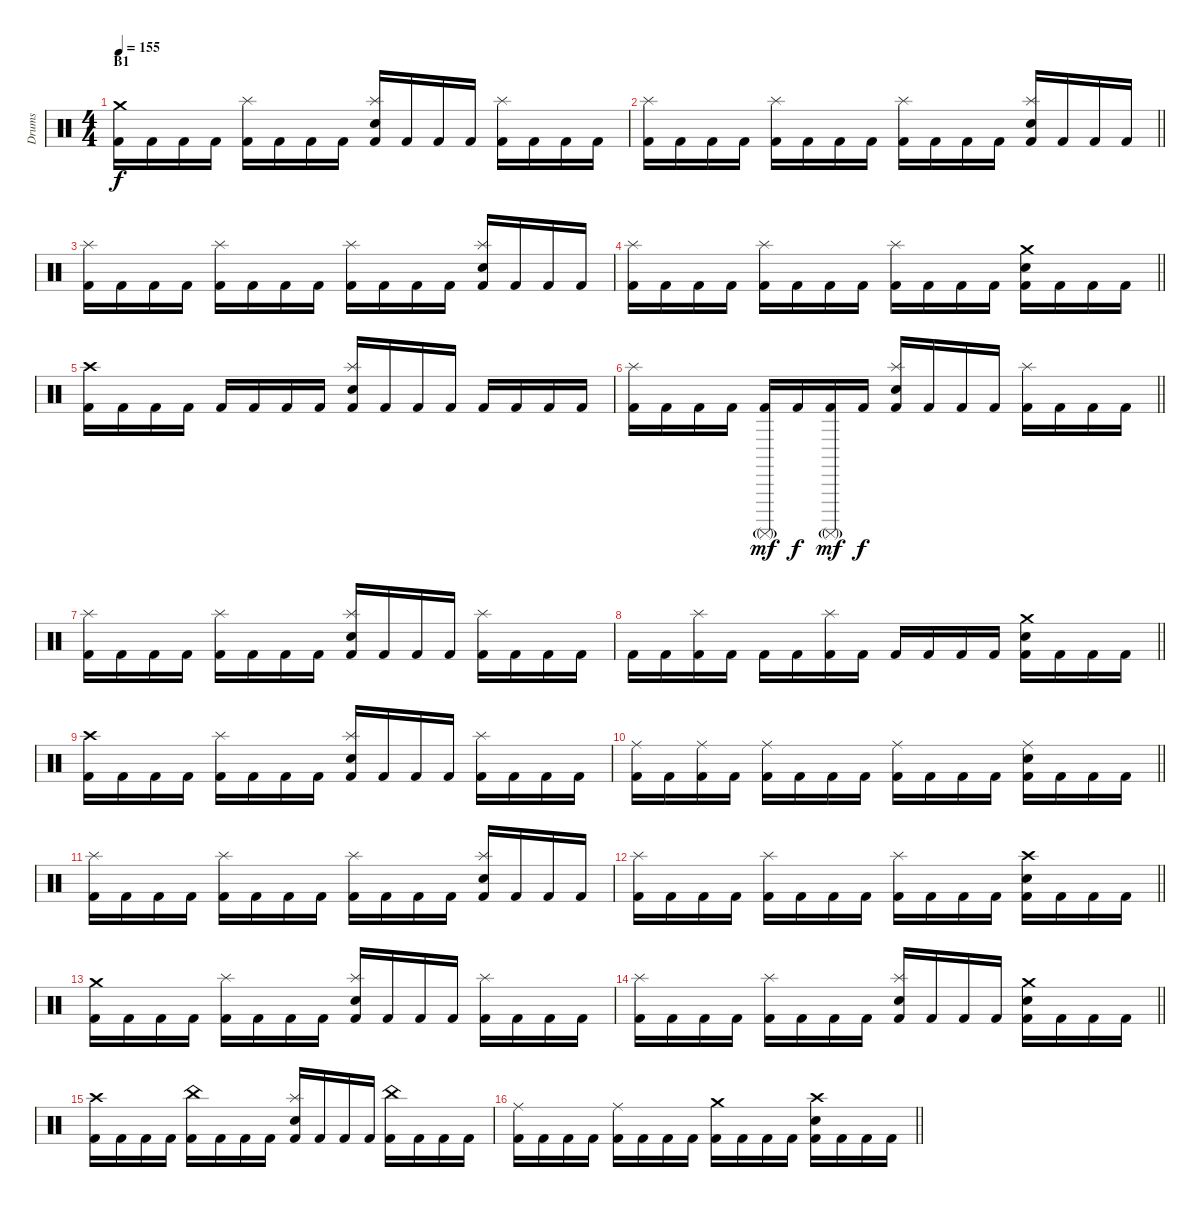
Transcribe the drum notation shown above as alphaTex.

\track ("Drums" "Drums") {instrument percussion}
\staff {score}
\articulation defaults
\ts (4 4)
\section ("" "B1")
\tempo 155
\clef neutral
\ks c
("Crash medium (hit)" "Kick (hit) 2").16{dy f} "Kick (hit) 2".16 "Kick (hit) 2".16 "Kick (hit) 2".16 ("Splash (hit)" "Kick (hit) 2").16 "Kick (hit) 2".16 "Kick (hit) 2".16 "Kick (hit) 2".16 ("Splash (hit)" "Electric Snare (hit)" "Kick (hit) 2").16 "Kick (hit) 2".16 "Kick (hit) 2".16 "Kick (hit) 2".16 ("Splash (hit)" "Kick (hit) 2").16 "Kick (hit) 2".16 "Kick (hit) 2".16 "Kick (hit) 2".16 |
\barLineRight lightlight
("Splash (hit)" "Kick (hit) 2").16 "Kick (hit) 2".16 "Kick (hit) 2".16 "Kick (hit) 2".16 ("Splash (hit)" "Kick (hit) 2").16 "Kick (hit) 2".16 "Kick (hit) 2".16 "Kick (hit) 2".16 ("Splash (hit)" "Kick (hit) 2").16 "Kick (hit) 2".16 "Kick (hit) 2".16 "Kick (hit) 2".16 ("Splash (hit)" "Electric Snare (hit)" "Kick (hit) 2").16 "Kick (hit) 2".16 "Kick (hit) 2".16 "Kick (hit) 2".16 |
("Splash (hit)" "Kick (hit) 2").16 "Kick (hit) 2".16 "Kick (hit) 2".16 "Kick (hit) 2".16 ("Splash (hit)" "Kick (hit) 2").16 "Kick (hit) 2".16 "Kick (hit) 2".16 "Kick (hit) 2".16 ("Splash (hit)" "Kick (hit) 2").16 "Kick (hit) 2".16 "Kick (hit) 2".16 "Kick (hit) 2".16 ("Splash (hit)" "Electric Snare (hit)" "Kick (hit) 2").16 "Kick (hit) 2".16 "Kick (hit) 2".16 "Kick (hit) 2".16 |
\barLineRight lightlight
("Splash (hit)" "Kick (hit) 2").16 "Kick (hit) 2".16 "Kick (hit) 2".16 "Kick (hit) 2".16 ("Splash (hit)" "Kick (hit) 2").16 "Kick (hit) 2".16 "Kick (hit) 2".16 "Kick (hit) 2".16 ("Splash (hit)" "Kick (hit) 2").16 "Kick (hit) 2".16 "Kick (hit) 2".16 "Kick (hit) 2".16 ("Crash medium (hit)" "Electric Snare (hit)" "Kick (hit) 2").16 "Kick (hit) 2".16 "Kick (hit) 2".16 "Kick (hit) 2".16 |
\section ("" "")
("Crash high (hit)" "Kick (hit) 2").16 "Kick (hit) 2".16 "Kick (hit) 2".16 "Kick (hit) 2".16 "Kick (hit) 2".16 "Kick (hit) 2".16 "Kick (hit) 2".16 "Kick (hit) 2".16 ("Splash (hit)" "Electric Snare (hit)" "Kick (hit) 2").16 "Kick (hit) 2".16 "Kick (hit) 2".16 "Kick (hit) 2".16 "Kick (hit) 2".16 "Kick (hit) 2".16 "Kick (hit) 2".16 "Kick (hit) 2".16 |
\barLineRight lightlight
("Splash (hit)" "Kick (hit) 2").16 "Kick (hit) 2".16 "Kick (hit) 2".16 "Kick (hit) 2".16 ("Surdo (mute)"{g} "Kick (hit) 2").16{dy mf} "Kick (hit) 2".16{dy f} ("Surdo (mute)"{g} "Kick (hit) 2").16{dy mf} "Kick (hit) 2".16{dy f} ("Splash (hit)" "Electric Snare (hit)" "Kick (hit) 2").16 "Kick (hit) 2".16 "Kick (hit) 2".16 "Kick (hit) 2".16 ("Splash (hit)" "Kick (hit) 2").16 "Kick (hit) 2".16 "Kick (hit) 2".16 "Kick (hit) 2".16 |
("Splash (hit)" "Kick (hit) 2").16 "Kick (hit) 2".16 "Kick (hit) 2".16 "Kick (hit) 2".16 ("Splash (hit)" "Kick (hit) 2").16 "Kick (hit) 2".16 "Kick (hit) 2".16 "Kick (hit) 2".16 ("Splash (hit)" "Electric Snare (hit)" "Kick (hit) 2").16 "Kick (hit) 2".16 "Kick (hit) 2".16 "Kick (hit) 2".16 ("Splash (hit)" "Kick (hit) 2").16 "Kick (hit) 2".16 "Kick (hit) 2".16 "Kick (hit) 2".16 |
\barLineRight lightlight "Kick (hit) 2".16 "Kick (hit) 2".16
("Splash (hit)" "Kick (hit) 2").16 "Kick (hit) 2".16 "Kick (hit) 2".16 "Kick (hit) 2".16 ("Splash (hit)" "Kick (hit) 2").16 "Kick (hit) 2".16 "Kick (hit) 2".16 "Kick (hit) 2".16 "Kick (hit) 2".16 "Kick (hit) 2".16 ("Crash medium (hit)" "Electric Snare (hit)" "Kick (hit) 2").16 "Kick (hit) 2".16 "Kick (hit) 2".16 "Kick (hit) 2".16 |
\section ("" "")
("Crash high (hit)" "Kick (hit) 2").16 "Kick (hit) 2".16 "Kick (hit) 2".16 "Kick (hit) 2".16 ("Splash (hit)" "Kick (hit) 2").16 "Kick (hit) 2".16 "Kick (hit) 2".16 "Kick (hit) 2".16 ("Splash (hit)" "Electric Snare (hit)" "Kick (hit) 2").16 "Kick (hit) 2".16 "Kick (hit) 2".16 "Kick (hit) 2".16 ("Splash (hit)" "Kick (hit) 2").16 "Kick (hit) 2".16 "Kick (hit) 2".16 "Kick (hit) 2".16 |
\barLineRight lightlight
("Ride (middle)" "Kick (hit) 2").16 "Kick (hit) 2".16 ("Ride (middle)" "Kick (hit) 2").16 "Kick (hit) 2".16 ("Ride (middle)" "Kick (hit) 2").16 "Kick (hit) 2".16 "Kick (hit) 2".16 "Kick (hit) 2".16 ("Ride (middle)" "Kick (hit) 2").16 "Kick (hit) 2".16 "Kick (hit) 2".16 "Kick (hit) 2".16 ("Ride (middle)" "Electric Snare (hit)" "Kick (hit) 2").16 "Kick (hit) 2".16 "Kick (hit) 2".16 "Kick (hit) 2".16 |
("Splash (hit)" "Kick (hit) 2").16 "Kick (hit) 2".16 "Kick (hit) 2".16 "Kick (hit) 2".16 ("Splash (hit)" "Kick (hit) 2").16 "Kick (hit) 2".16 "Kick (hit) 2".16 "Kick (hit) 2".16 ("Splash (hit)" "Kick (hit) 2").16 "Kick (hit) 2".16 "Kick (hit) 2".16 "Kick (hit) 2".16 ("Splash (hit)" "Electric Snare (hit)" "Kick (hit) 2").16 "Kick (hit) 2".16 "Kick (hit) 2".16 "Kick (hit) 2".16 |
\barLineRight lightlight
("Splash (hit)" "Kick (hit) 2").16 "Kick (hit) 2".16 "Kick (hit) 2".16 "Kick (hit) 2".16 ("Splash (hit)" "Kick (hit) 2").16 "Kick (hit) 2".16 "Kick (hit) 2".16 "Kick (hit) 2".16 ("Splash (hit)" "Kick (hit) 2").16 "Kick (hit) 2".16 "Kick (hit) 2".16 "Kick (hit) 2".16 ("Crash high (hit)" "Electric Snare (hit)" "Kick (hit) 2").16 "Kick (hit) 2".16 "Kick (hit) 2".16 "Kick (hit) 2".16 |
\section ("" "")
("Crash medium (hit)" "Kick (hit) 2").16 "Kick (hit) 2".16 "Kick (hit) 2".16 "Kick (hit) 2".16 ("Splash (hit)" "Kick (hit) 2").16 "Kick (hit) 2".16 "Kick (hit) 2".16 "Kick (hit) 2".16 ("Splash (hit)" "Electric Snare (hit)" "Kick (hit) 2").16 "Kick (hit) 2".16 "Kick (hit) 2".16 "Kick (hit) 2".16 ("Splash (hit)" "Kick (hit) 2").16 "Kick (hit) 2".16 "Kick (hit) 2".16 "Kick (hit) 2".16 |
\barLineRight lightlight
("Splash (hit)" "Kick (hit) 2").16 "Kick (hit) 2".16 "Kick (hit) 2".16 "Kick (hit) 2".16 ("Splash (hit)" "Kick (hit) 2").16 "Kick (hit) 2".16 "Kick (hit) 2".16 "Kick (hit) 2".16 ("Splash (hit)" "Electric Snare (hit)" "Kick (hit) 2").16 "Kick (hit) 2".16 "Kick (hit) 2".16 "Kick (hit) 2".16 ("Crash medium (hit)" "Electric Snare (hit)" "Kick (hit) 2").16 "Kick (hit) 2".16 "Kick (hit) 2".16 "Kick (hit) 2".16 |
("Crash high (hit)" "Kick (hit) 2").16 "Kick (hit) 2".16 "Kick (hit) 2".16 "Kick (hit) 2".16 ("China (hit)" "Kick (hit) 2").16 "Kick (hit) 2".16 "Kick (hit) 2".16 "Kick (hit) 2".16 ("Splash (hit)" "Electric Snare (hit)" "Kick (hit) 2").16 "Kick (hit) 2".16 "Kick (hit) 2".16 "Kick (hit) 2".16 ("China (hit)" "Kick (hit) 2").16 "Kick (hit) 2".16 "Kick (hit) 2".16 "Kick (hit) 2".16 |
\barLineRight lightlight
("Ride (middle)" "Kick (hit) 2").16 "Kick (hit) 2".16 "Kick (hit) 2".16 "Kick (hit) 2".16 ("Ride (middle)" "Kick (hit) 2").16 "Kick (hit) 2".16 "Kick (hit) 2".16 "Kick (hit) 2".16 ("Crash medium (hit)" "Kick (hit) 2").16 "Kick (hit) 2".16 "Kick (hit) 2".16 "Kick (hit) 2".16 ("Crash high (hit)" "Electric Snare (hit)" "Kick (hit) 2").16 "Kick (hit) 2".16 "Kick (hit) 2".16 "Kick (hit) 2".16
